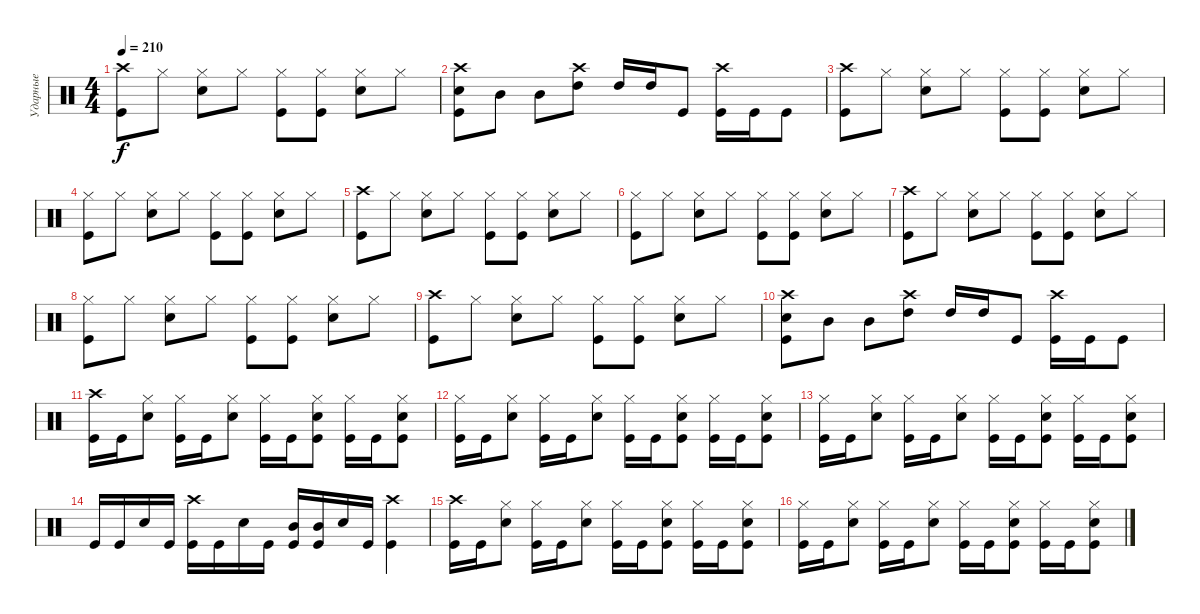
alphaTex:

\track ("Ударные" "Ударные") {instrument percussion}
\staff {score}
\articulation defaults
\ts (4 4)
\tempo 210
\clef neutral
\ks c
("Crash high (hit)" "Kick (hit)").8{dy f} "Hi-Hat (closed)".8 ("Hi-Hat (closed)" "Electric Snare (hit)").8 "Hi-Hat (closed)".8 ("Hi-Hat (closed)" "Kick (hit)").8 ("Hi-Hat (closed)" "Kick (hit)").8 ("Hi-Hat (closed)" "Electric Snare (hit)").8 "Hi-Hat (closed)".8 |
("Crash high (hit)" "Electric Snare (hit)" "Kick (hit)").8 "Mid Tom (hit)".8 "Mid Tom (hit)".8 ("Crash high (hit)" "High Tom (hit)").8 "High Tom (hit)".16 "High Tom (hit)".16 "Kick (hit)".8 ("Crash high (hit)" "Kick (hit)").16 "Kick (hit)".16 "Kick (hit)".8 |
("Crash high (hit)" "Kick (hit)").8 "Hi-Hat (closed)".8 ("Hi-Hat (closed)" "Electric Snare (hit)").8 "Hi-Hat (closed)".8 ("Hi-Hat (closed)" "Kick (hit)").8 ("Hi-Hat (closed)" "Kick (hit)").8 ("Hi-Hat (closed)" "Electric Snare (hit)").8 "Hi-Hat (closed)".8 |
("Hi-Hat (closed)" "Kick (hit)").8 "Hi-Hat (closed)".8 ("Hi-Hat (closed)" "Electric Snare (hit)").8 "Hi-Hat (closed)".8 ("Hi-Hat (closed)" "Kick (hit)").8 ("Hi-Hat (closed)" "Kick (hit)").8 ("Hi-Hat (closed)" "Electric Snare (hit)").8 "Hi-Hat (closed)".8 |
("Crash high (hit)" "Kick (hit)").8 "Hi-Hat (closed)".8 ("Hi-Hat (closed)" "Electric Snare (hit)").8 "Hi-Hat (closed)".8 ("Hi-Hat (closed)" "Kick (hit)").8 ("Hi-Hat (closed)" "Kick (hit)").8 ("Hi-Hat (closed)" "Electric Snare (hit)").8 "Hi-Hat (closed)".8 |
("Hi-Hat (closed)" "Kick (hit)").8 "Hi-Hat (closed)".8 ("Hi-Hat (closed)" "Electric Snare (hit)").8 "Hi-Hat (closed)".8 ("Hi-Hat (closed)" "Kick (hit)").8 ("Hi-Hat (closed)" "Kick (hit)").8 ("Hi-Hat (closed)" "Electric Snare (hit)").8 "Hi-Hat (closed)".8 |
("Crash high (hit)" "Kick (hit)").8 "Hi-Hat (closed)".8 ("Hi-Hat (closed)" "Electric Snare (hit)").8 "Hi-Hat (closed)".8 ("Hi-Hat (closed)" "Kick (hit)").8 ("Hi-Hat (closed)" "Kick (hit)").8 ("Hi-Hat (closed)" "Electric Snare (hit)").8 "Hi-Hat (closed)".8 |
("Hi-Hat (closed)" "Kick (hit)").8 "Hi-Hat (closed)".8 ("Hi-Hat (closed)" "Electric Snare (hit)").8 "Hi-Hat (closed)".8 ("Hi-Hat (closed)" "Kick (hit)").8 ("Hi-Hat (closed)" "Kick (hit)").8 ("Hi-Hat (closed)" "Electric Snare (hit)").8 "Hi-Hat (closed)".8 |
("Crash high (hit)" "Kick (hit)").8 "Hi-Hat (closed)".8 ("Hi-Hat (closed)" "Electric Snare (hit)").8 "Hi-Hat (closed)".8 ("Hi-Hat (closed)" "Kick (hit)").8 ("Hi-Hat (closed)" "Kick (hit)").8 ("Hi-Hat (closed)" "Electric Snare (hit)").8 "Hi-Hat (closed)".8 |
("Crash high (hit)" "Electric Snare (hit)" "Kick (hit)").8 "Mid Tom (hit)".8 "Mid Tom (hit)".8 ("Crash high (hit)" "High Tom (hit)").8 "High Tom (hit)".16 "High Tom (hit)".16 "Kick (hit)".8 ("Crash high (hit)" "Kick (hit)").16 "Kick (hit)".16 "Kick (hit)".8 |
("Crash high (hit)" "Kick (hit)").16 "Kick (hit)".16 ("Hi-Hat (closed)" "Electric Snare (hit)").8 ("Hi-Hat (closed)" "Kick (hit)").16 "Kick (hit)".16 ("Hi-Hat (closed)" "Electric Snare (hit)").8 ("Hi-Hat (closed)" "Kick (hit)").16 "Kick (hit)".16 ("Hi-Hat (closed)" "Electric Snare (hit)" "Kick (hit)").8 ("Hi-Hat (closed)" "Kick (hit)").16 "Kick (hit)".16 ("Hi-Hat (closed)" "Electric Snare (hit)" "Kick (hit)").8 |
("Hi-Hat (closed)" "Kick (hit)").16 "Kick (hit)".16 ("Hi-Hat (closed)" "Electric Snare (hit)").8 ("Hi-Hat (closed)" "Kick (hit)").16 "Kick (hit)".16 ("Hi-Hat (closed)" "Electric Snare (hit)").8 ("Hi-Hat (closed)" "Kick (hit)").16 "Kick (hit)".16 ("Hi-Hat (closed)" "Electric Snare (hit)" "Kick (hit)").8 ("Hi-Hat (closed)" "Kick (hit)").16 "Kick (hit)".16 ("Hi-Hat (closed)" "Electric Snare (hit)" "Kick (hit)").8 |
("Hi-Hat (closed)" "Kick (hit)").16 "Kick (hit)".16 ("Hi-Hat (closed)" "Electric Snare (hit)").8 ("Hi-Hat (closed)" "Kick (hit)").16 "Kick (hit)".16 ("Hi-Hat (closed)" "Electric Snare (hit)").8 ("Hi-Hat (closed)" "Kick (hit)").16 "Kick (hit)".16 ("Hi-Hat (closed)" "Electric Snare (hit)" "Kick (hit)").8 ("Hi-Hat (closed)" "Kick (hit)").16 "Kick (hit)".16 ("Hi-Hat (closed)" "Electric Snare (hit)" "Kick (hit)").8 |
"Kick (hit)".16 "Kick (hit)".16 "Electric Snare (hit)".16 "Kick (hit)".16 ("Crash high (hit)" "Kick (hit)").16 "Kick (hit)".16 "Electric Snare (hit)".16 "Kick (hit)".16 ("Mid Tom (hit)" "Kick (hit)").16 ("Mid Tom (hit)" "Kick (hit)").16 "Electric Snare (hit)".16 "Kick (hit)".16 ("Crash high (hit)" "Kick (hit)").4 |
("Crash high (hit)" "Kick (hit)").16 "Kick (hit)".16 ("Hi-Hat (closed)" "Electric Snare (hit)").8 ("Hi-Hat (closed)" "Kick (hit)").16 "Kick (hit)".16 ("Hi-Hat (closed)" "Electric Snare (hit)").8 ("Hi-Hat (closed)" "Kick (hit)").16 "Kick (hit)".16 ("Hi-Hat (closed)" "Electric Snare (hit)" "Kick (hit)").8 ("Hi-Hat (closed)" "Kick (hit)").16 "Kick (hit)".16 ("Hi-Hat (closed)" "Electric Snare (hit)" "Kick (hit)").8 |
("Hi-Hat (closed)" "Kick (hit)").16 "Kick (hit)".16 ("Hi-Hat (closed)" "Electric Snare (hit)").8 ("Hi-Hat (closed)" "Kick (hit)").16 "Kick (hit)".16 ("Hi-Hat (closed)" "Electric Snare (hit)").8 ("Hi-Hat (closed)" "Kick (hit)").16 "Kick (hit)".16 ("Hi-Hat (closed)" "Electric Snare (hit)" "Kick (hit)").8 ("Hi-Hat (closed)" "Kick (hit)").16 "Kick (hit)".16 ("Hi-Hat (closed)" "Electric Snare (hit)" "Kick (hit)").8
